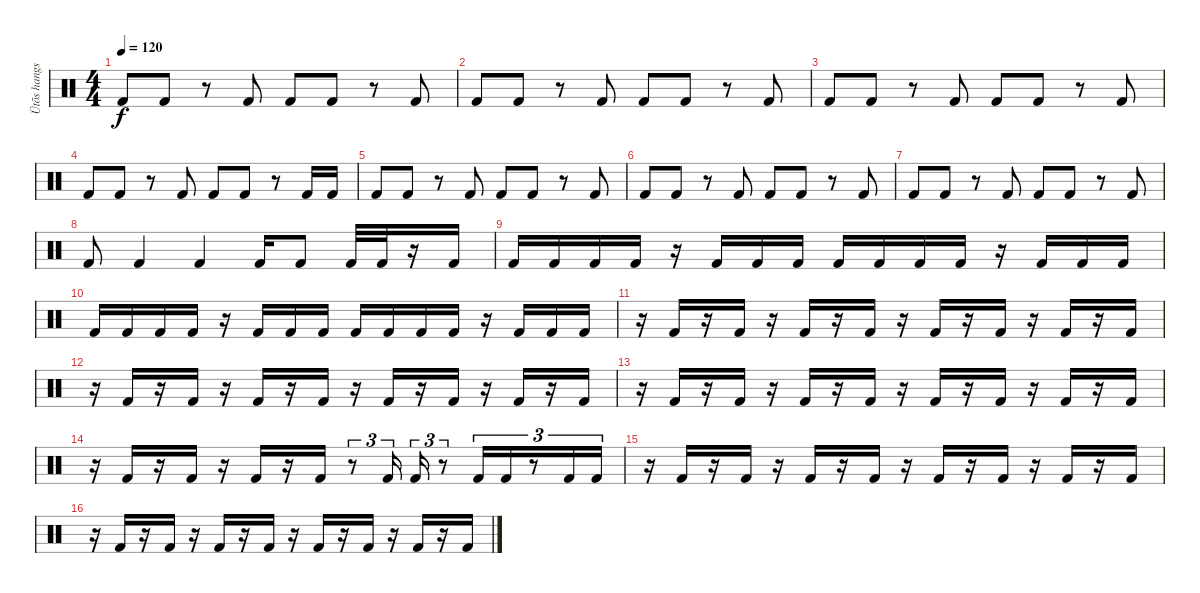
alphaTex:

\track ("Ütõs hangszer" "Ütõs hangs") {instrument percussion}
\staff {score}
\articulation defaults
\ts (4 4)
\tempo 120
\clef neutral
\ks c "Kick (hit) 2".8{dy f} "Kick (hit) 2".8
r.8 "Kick (hit) 2".8 "Kick (hit) 2".8 "Kick (hit) 2".8 r.8 "Kick (hit) 2".8 |
"Kick (hit) 2".8 "Kick (hit) 2".8 r.8 "Kick (hit) 2".8 "Kick (hit) 2".8 "Kick (hit) 2".8 r.8 "Kick (hit) 2".8 |
"Kick (hit) 2".8 "Kick (hit) 2".8 r.8 "Kick (hit) 2".8 "Kick (hit) 2".8 "Kick (hit) 2".8 r.8 "Kick (hit) 2".8 |
"Kick (hit) 2".8 "Kick (hit) 2".8 r.8 "Kick (hit) 2".8 "Kick (hit) 2".8 "Kick (hit) 2".8 r.8 "Kick (hit) 2".16 "Kick (hit) 2".16 |
"Kick (hit) 2".8 "Kick (hit) 2".8 r.8 "Kick (hit) 2".8 "Kick (hit) 2".8 "Kick (hit) 2".8 r.8 "Kick (hit) 2".8 |
"Kick (hit) 2".8 "Kick (hit) 2".8 r.8 "Kick (hit) 2".8 "Kick (hit) 2".8 "Kick (hit) 2".8 r.8 "Kick (hit) 2".8 |
"Kick (hit) 2".8 "Kick (hit) 2".8 r.8 "Kick (hit) 2".8 "Kick (hit) 2".8 "Kick (hit) 2".8 r.8 "Kick (hit) 2".8 |
"Kick (hit) 2".8 "Kick (hit) 2".4 "Kick (hit) 2".4 "Kick (hit) 2".16 "Kick (hit) 2".8 "Kick (hit) 2".32 "Kick (hit) 2".32 r.16 "Kick (hit) 2".16 |
"Kick (hit) 2".16 "Kick (hit) 2".16 "Kick (hit) 2".16 "Kick (hit) 2".16 r.16 "Kick (hit) 2".16 "Kick (hit) 2".16 "Kick (hit) 2".16 "Kick (hit) 2".16 "Kick (hit) 2".16 "Kick (hit) 2".16 "Kick (hit) 2".16 r.16 "Kick (hit) 2".16 "Kick (hit) 2".16 "Kick (hit) 2".16 |
"Kick (hit) 2".16 "Kick (hit) 2".16 "Kick (hit) 2".16 "Kick (hit) 2".16 r.16 "Kick (hit) 2".16 "Kick (hit) 2".16 "Kick (hit) 2".16 "Kick (hit) 2".16 "Kick (hit) 2".16 "Kick (hit) 2".16 "Kick (hit) 2".16 r.16 "Kick (hit) 2".16 "Kick (hit) 2".16 "Kick (hit) 2".16 |
r.16 "Kick (hit) 2".16 r.16 "Kick (hit) 2".16 r.16 "Kick (hit) 2".16 r.16 "Kick (hit) 2".16 r.16 "Kick (hit) 2".16 r.16 "Kick (hit) 2".16 r.16 "Kick (hit) 2".16 r.16 "Kick (hit) 2".16 |
r.16 "Kick (hit) 2".16 r.16 "Kick (hit) 2".16 r.16 "Kick (hit) 2".16 r.16 "Kick (hit) 2".16 r.16 "Kick (hit) 2".16 r.16 "Kick (hit) 2".16 r.16 "Kick (hit) 2".16 r.16 "Kick (hit) 2".16 |
r.16 "Kick (hit) 2".16 r.16 "Kick (hit) 2".16 r.16 "Kick (hit) 2".16 r.16 "Kick (hit) 2".16 r.16 "Kick (hit) 2".16 r.16 "Kick (hit) 2".16 r.16 "Kick (hit) 2".16 r.16 "Kick (hit) 2".16 |
r.16 "Kick (hit) 2".16 r.16 "Kick (hit) 2".16 r.16 "Kick (hit) 2".16 r.16 "Kick (hit) 2".16 r.8{tu (3 2)} "Kick (hit) 2".16{tu (3 2)} "Kick (hit) 2".16{tu (3 2)} r.8{tu (3 2)} "Kick (hit) 2".16{tu (3 2)} "Kick (hit) 2".16{tu (3 2)} r.8{tu (3 2)} "Kick (hit) 2".16{tu (3 2)} "Kick (hit) 2".16{tu (3 2)} |
r.16 "Kick (hit) 2".16 r.16 "Kick (hit) 2".16 r.16 "Kick (hit) 2".16 r.16 "Kick (hit) 2".16 r.16 "Kick (hit) 2".16 r.16 "Kick (hit) 2".16 r.16 "Kick (hit) 2".16 r.16 "Kick (hit) 2".16 |
r.16 "Kick (hit) 2".16 r.16 "Kick (hit) 2".16 r.16 "Kick (hit) 2".16 r.16 "Kick (hit) 2".16 r.16 "Kick (hit) 2".16 r.16 "Kick (hit) 2".16 r.16 "Kick (hit) 2".16 r.16 "Kick (hit) 2".16
